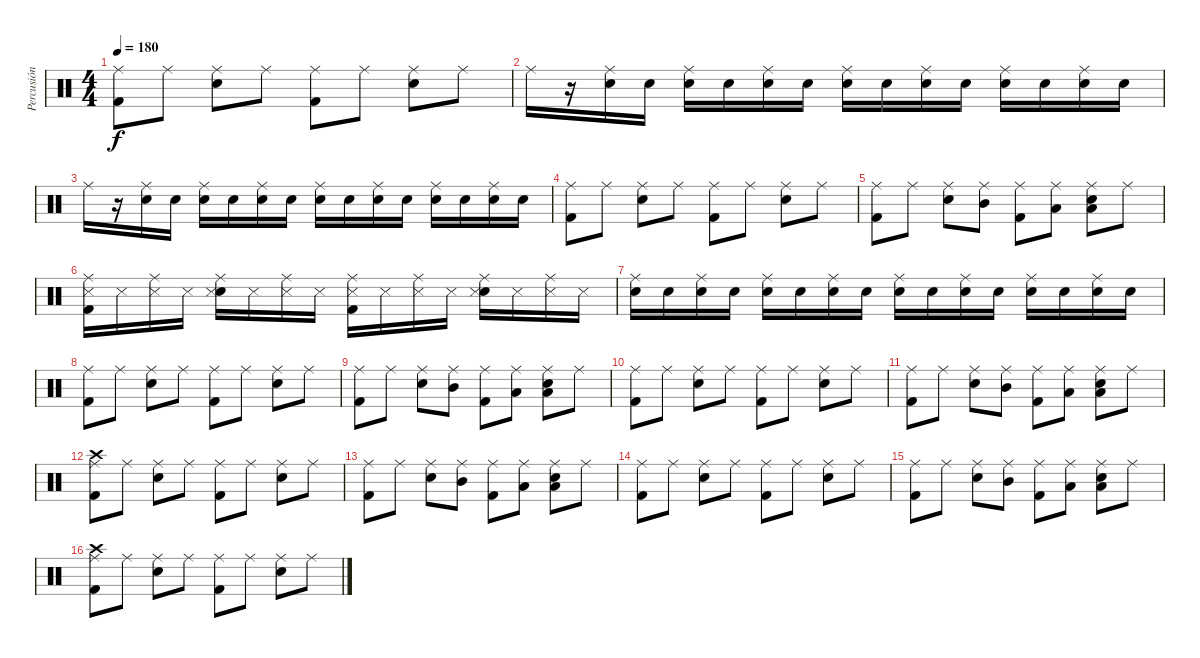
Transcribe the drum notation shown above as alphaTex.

\track ("Percusión" "Percusión") {instrument percussion}
\staff {score}
\articulation defaults
\ts (4 4)
\tempo 180
\clef neutral
\ks c
("Kick (hit) 2" "Ride (middle)").8{dy f} "Ride (middle)".8 ("Electric Snare (hit)" "Ride (middle)").8 "Ride (middle)".8 ("Kick (hit) 2" "Ride (middle)").8 "Ride (middle)".8 ("Electric Snare (hit)" "Ride (middle)").8 "Ride (middle)".8 |
"Ride (middle)".16 r.16 ("Ride (middle)" "Electric Snare (hit)").16 "Electric Snare (hit)".16 ("Ride (middle)" "Electric Snare (hit)").16 "Electric Snare (hit)".16 ("Ride (middle)" "Electric Snare (hit)").16 "Electric Snare (hit)".16 ("Ride (middle)" "Electric Snare (hit)").16 "Electric Snare (hit)".16 ("Ride (middle)" "Electric Snare (hit)").16 "Electric Snare (hit)".16 ("Ride (middle)" "Electric Snare (hit)").16 "Electric Snare (hit)".16 ("Ride (middle)" "Electric Snare (hit)").16 "Electric Snare (hit)".16 |
"Ride (middle)".16 r.16 ("Ride (middle)" "Electric Snare (hit)").16 "Electric Snare (hit)".16 ("Ride (middle)" "Electric Snare (hit)").16 "Electric Snare (hit)".16 ("Ride (middle)" "Electric Snare (hit)").16 "Electric Snare (hit)".16 ("Ride (middle)" "Electric Snare (hit)").16 "Electric Snare (hit)".16 ("Ride (middle)" "Electric Snare (hit)").16 "Electric Snare (hit)".16 ("Ride (middle)" "Electric Snare (hit)").16 "Electric Snare (hit)".16 ("Ride (middle)" "Electric Snare (hit)").16 "Electric Snare (hit)".16 |
("Kick (hit) 2" "Ride (middle)").8 "Ride (middle)".8 ("Electric Snare (hit)" "Ride (middle)").8 "Ride (middle)".8 ("Kick (hit) 2" "Ride (middle)").8 "Ride (middle)".8 ("Electric Snare (hit)" "Ride (middle)").8 "Ride (middle)".8 |
("Kick (hit) 2" "Ride (middle)").8 "Ride (middle)".8 ("Electric Snare (hit)" "Ride (middle)").8 ("Ride (middle)" "Mid Tom (hit)").8 ("Kick (hit) 2" "Ride (middle)").8 ("Ride (middle)" "Low Tom (hit)").8 ("Electric Snare (hit)" "Ride (middle)" "Low Floor Tom (hit)").8 "Ride (middle)".8 |
("Kick (hit) 2" "Ride (middle)" "Snare (side stick) 3").16 "Snare (side stick) 3".16 ("Ride (middle)" "Snare (side stick) 3").16 "Snare (side stick) 3".16 ("Electric Snare (hit)" "Ride (middle)" "Snare (side stick) 3").16 "Snare (side stick) 3".16 ("Ride (middle)" "Snare (side stick) 3").16 "Snare (side stick) 3".16 ("Kick (hit) 2" "Ride (middle)" "Snare (side stick) 3").16 "Snare (side stick) 3".16 ("Ride (middle)" "Snare (side stick) 3").16 "Snare (side stick) 3".16 ("Electric Snare (hit)" "Ride (middle)" "Snare (side stick) 3").16 "Snare (side stick) 3".16 ("Ride (middle)" "Snare (side stick) 3").16 "Snare (side stick) 3".16 |
("Ride (middle)" "Electric Snare (hit)").16 "Electric Snare (hit)".16 ("Ride (middle)" "Electric Snare (hit)").16 "Electric Snare (hit)".16 ("Ride (middle)" "Electric Snare (hit)").16 "Electric Snare (hit)".16 ("Ride (middle)" "Electric Snare (hit)").16 "Electric Snare (hit)".16 ("Ride (middle)" "Electric Snare (hit)").16 "Electric Snare (hit)".16 ("Ride (middle)" "Electric Snare (hit)").16 "Electric Snare (hit)".16 ("Ride (middle)" "Electric Snare (hit)").16 "Electric Snare (hit)".16 ("Ride (middle)" "Electric Snare (hit)").16 "Electric Snare (hit)".16 |
("Kick (hit) 2" "Ride (middle)").8 "Ride (middle)".8 ("Electric Snare (hit)" "Ride (middle)").8 "Ride (middle)".8 ("Kick (hit) 2" "Ride (middle)").8 "Ride (middle)".8 ("Electric Snare (hit)" "Ride (middle)").8 "Ride (middle)".8 |
("Kick (hit) 2" "Ride (middle)").8 "Ride (middle)".8 ("Electric Snare (hit)" "Ride (middle)").8 ("Ride (middle)" "Mid Tom (hit)").8 ("Kick (hit) 2" "Ride (middle)").8 ("Ride (middle)" "Low Tom (hit)").8 ("Electric Snare (hit)" "Ride (middle)" "Low Floor Tom (hit)").8 "Ride (middle)".8 |
("Kick (hit) 2" "Ride (middle)").8 "Ride (middle)".8 ("Electric Snare (hit)" "Ride (middle)").8 "Ride (middle)".8 ("Kick (hit) 2" "Ride (middle)").8 "Ride (middle)".8 ("Electric Snare (hit)" "Ride (middle)").8 "Ride (middle)".8 |
("Kick (hit) 2" "Ride (middle)").8 "Ride (middle)".8 ("Electric Snare (hit)" "Ride (middle)").8 ("Ride (middle)" "Mid Tom (hit)").8 ("Kick (hit) 2" "Ride (middle)").8 ("Ride (middle)" "Low Tom (hit)").8 ("Electric Snare (hit)" "Ride (middle)" "Low Floor Tom (hit)").8 "Ride (middle)".8 |
("Kick (hit) 2" "Ride (middle)" "Crash high (hit)").8 "Ride (middle)".8 ("Electric Snare (hit)" "Ride (middle)").8 "Ride (middle)".8 ("Kick (hit) 2" "Ride (middle)").8 "Ride (middle)".8 ("Electric Snare (hit)" "Ride (middle)").8 "Ride (middle)".8 |
("Kick (hit) 2" "Ride (middle)").8 "Ride (middle)".8 ("Electric Snare (hit)" "Ride (middle)").8 ("Ride (middle)" "Mid Tom (hit)").8 ("Kick (hit) 2" "Ride (middle)").8 ("Ride (middle)" "Low Tom (hit)").8 ("Electric Snare (hit)" "Ride (middle)" "Low Floor Tom (hit)").8 "Ride (middle)".8 |
("Kick (hit) 2" "Ride (middle)").8 "Ride (middle)".8 ("Electric Snare (hit)" "Ride (middle)").8 "Ride (middle)".8 ("Kick (hit) 2" "Ride (middle)").8 "Ride (middle)".8 ("Electric Snare (hit)" "Ride (middle)").8 "Ride (middle)".8 |
("Kick (hit) 2" "Ride (middle)").8 "Ride (middle)".8 ("Electric Snare (hit)" "Ride (middle)").8 ("Ride (middle)" "Mid Tom (hit)").8 ("Kick (hit) 2" "Ride (middle)").8 ("Ride (middle)" "Low Tom (hit)").8 ("Electric Snare (hit)" "Ride (middle)" "Low Floor Tom (hit)").8 "Ride (middle)".8 |
("Kick (hit) 2" "Ride (middle)" "Crash high (hit)").8 "Ride (middle)".8 ("Electric Snare (hit)" "Ride (middle)").8 "Ride (middle)".8 ("Kick (hit) 2" "Ride (middle)").8 "Ride (middle)".8 ("Electric Snare (hit)" "Ride (middle)").8 "Ride (middle)".8
